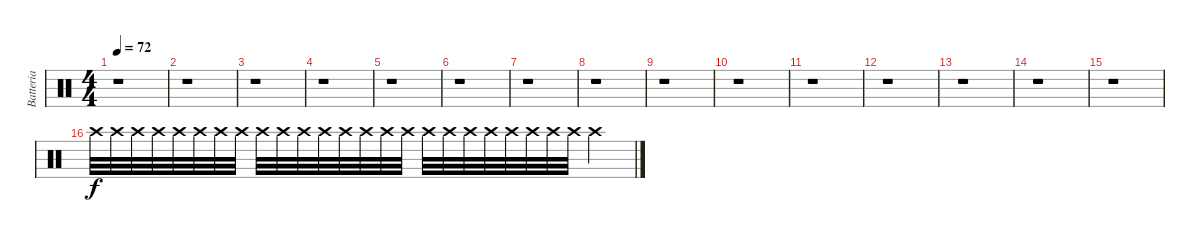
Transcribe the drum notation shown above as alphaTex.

\track ("Batteria" "Batteria") {instrument percussion}
\staff {score}
\articulation defaults
\ts (4 4)
\tempo 72
\clef neutral
\ks c
r.1{dy f} |
r.1 |
r.1 |
r.1 |
r.1 |
r.1 |
r.1 |
r.1 |
r.1 |
r.1 |
r.1 |
r.1 |
r.1 |
r.1 |
r.1 |
"Crash high (hit)".32{volume 1} "Crash high (hit)".32 "Crash high (hit)".32 "Crash high (hit)".32{volume 2} "Crash high (hit)".32 "Crash high (hit)".32 "Crash high (hit)".32{volume 3} "Crash high (hit)".32 "Crash high (hit)".32 "Crash high (hit)".32{volume 4} "Crash high (hit)".32 "Crash high (hit)".32 "Crash high (hit)".32{volume 5} "Crash high (hit)".32 "Crash high (hit)".32 "Crash high (hit)".32{volume 6} "Crash high (hit)".32 "Crash high (hit)".32 "Crash high (hit)".32{volume 7} "Crash high (hit)".32 "Crash high (hit)".32 "Crash high (hit)".32{volume 8} "Crash high (hit)".32 "Crash high (hit)".32 "Crash high (hit)".4{volume 9}
